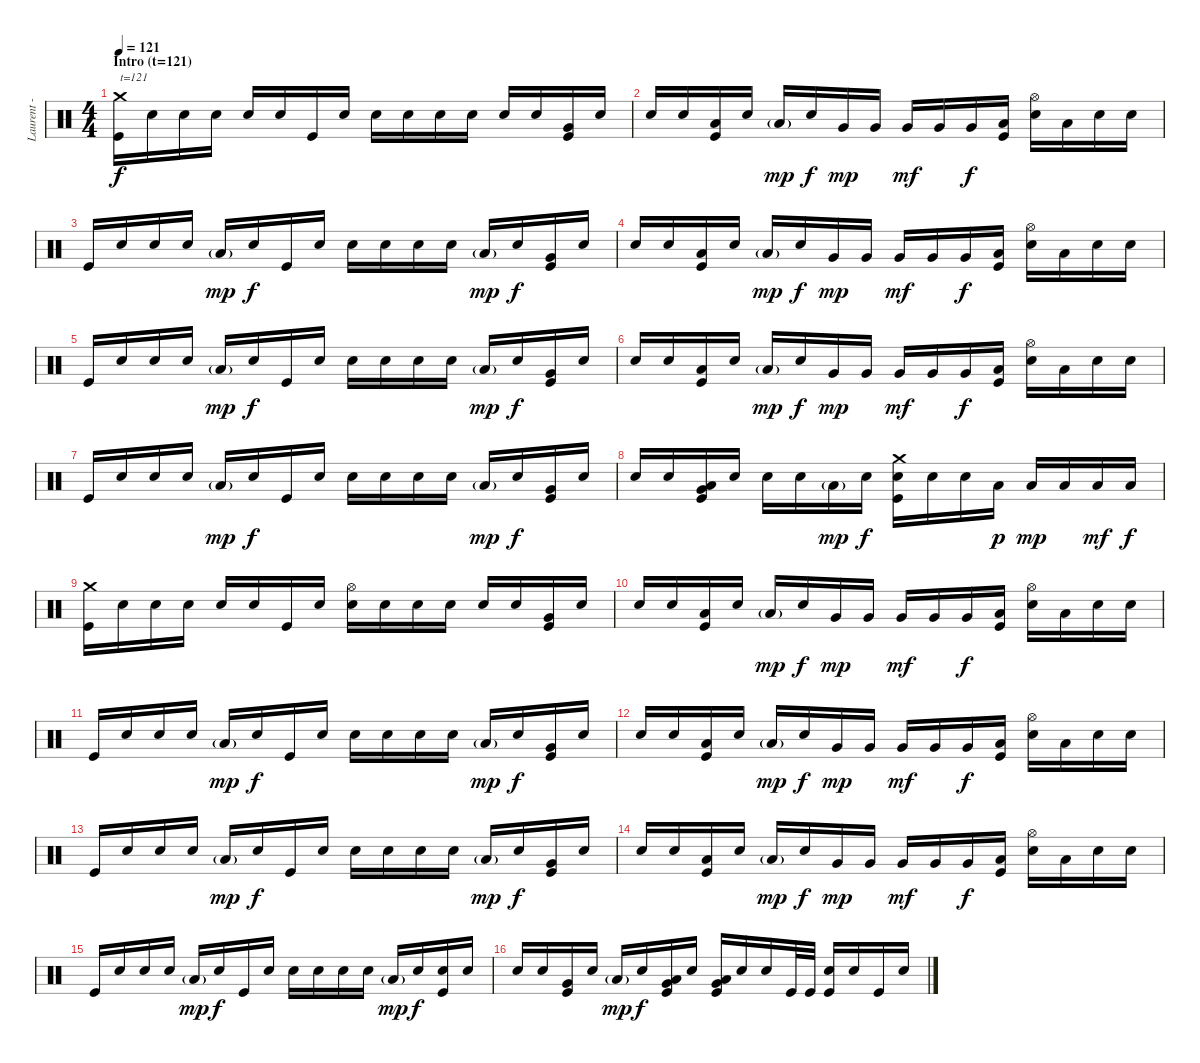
\track ("Laurent - Batterie" "Laurent - ") {instrument percussion}
\staff {score}
\articulation defaults
\ts (4 4)
\section ("" "Intro (t=121)")
\tempo 121
\clef neutral
\ks c
("Crash medium (hit)" "Kick (hit)").16{txt "t=121" dy f volume 16 balance 8} "Snare (hit)".16 "Snare (hit)".16 "Snare (hit)".16 "Snare (hit)".16 "Snare (hit)".16 "Kick (hit)".16 "Snare (hit)".16 "Electric Snare (hit)".16 "Snare (hit)".16 "Snare (hit)".16 "Snare (hit)".16 "Snare (hit)".16 "Snare (hit)".16 ("Very Low Tom (hit)" "Kick (hit)").16 "Snare (hit)".16 |
"Snare (hit)".16 "Snare (hit)".16 ("Low Floor Tom (hit)" "Kick (hit)").16 "Snare (hit)".16 "Low Floor Tom (hit)"{g}.16{dy mp} "Snare (hit)".16{dy f} "Very Low Tom (hit)".16{dy mp} "Very Low Tom (hit)".16 "Very Low Tom (hit)".16{dy mf} "Very Low Tom (hit)".16 "Very Low Tom (hit)".16{dy f} ("Low Floor Tom (hit)" "Kick (hit)").16 ("Hi-Hat (open)" "Electric Snare (hit)").16 "Low Floor Tom (hit)".16 "Snare (hit)".16 "Electric Snare (hit)".16 |
"Kick (hit)".16 "Snare (hit)".16 "Snare (hit)".16 "Snare (hit)".16 "Low Floor Tom (hit)"{g}.16{dy mp} "Snare (hit)".16{dy f} "Kick (hit)".16 "Snare (hit)".16 "Electric Snare (hit)".16 "Snare (hit)".16 "Snare (hit)".16 "Snare (hit)".16 "Low Floor Tom (hit)"{g}.16{dy mp} "Snare (hit)".16{dy f} ("Very Low Tom (hit)" "Kick (hit)").16 "Snare (hit)".16 |
"Snare (hit)".16 "Snare (hit)".16 ("Low Floor Tom (hit)" "Kick (hit)").16 "Snare (hit)".16 "Low Floor Tom (hit)"{g}.16{dy mp} "Snare (hit)".16{dy f} "Very Low Tom (hit)".16{dy mp} "Very Low Tom (hit)".16 "Very Low Tom (hit)".16{dy mf} "Very Low Tom (hit)".16 "Very Low Tom (hit)".16{dy f} ("Low Floor Tom (hit)" "Kick (hit)").16 ("Hi-Hat (open)" "Electric Snare (hit)").16 "Low Floor Tom (hit)".16 "Snare (hit)".16 "Electric Snare (hit)".16 |
"Kick (hit)".16 "Snare (hit)".16 "Snare (hit)".16 "Snare (hit)".16 "Low Floor Tom (hit)"{g}.16{dy mp} "Snare (hit)".16{dy f} "Kick (hit)".16 "Snare (hit)".16 "Electric Snare (hit)".16 "Snare (hit)".16 "Snare (hit)".16 "Snare (hit)".16 "Low Floor Tom (hit)"{g}.16{dy mp} "Snare (hit)".16{dy f} ("Very Low Tom (hit)" "Kick (hit)").16 "Snare (hit)".16 |
"Snare (hit)".16 "Snare (hit)".16 ("Low Floor Tom (hit)" "Kick (hit)").16 "Snare (hit)".16 "Low Floor Tom (hit)"{g}.16{dy mp} "Snare (hit)".16{dy f} "Very Low Tom (hit)".16{dy mp} "Very Low Tom (hit)".16 "Very Low Tom (hit)".16{dy mf} "Very Low Tom (hit)".16 "Very Low Tom (hit)".16{dy f} ("Low Floor Tom (hit)" "Kick (hit)").16 ("Hi-Hat (open)" "Electric Snare (hit)").16 "Low Floor Tom (hit)".16 "Snare (hit)".16 "Electric Snare (hit)".16 |
"Kick (hit)".16 "Snare (hit)".16 "Snare (hit)".16 "Snare (hit)".16 "Low Floor Tom (hit)"{g}.16{dy mp} "Snare (hit)".16{dy f} "Kick (hit)".16 "Snare (hit)".16 "Electric Snare (hit)".16 "Snare (hit)".16 "Snare (hit)".16 "Snare (hit)".16 "Low Floor Tom (hit)"{g}.16{dy mp} "Snare (hit)".16{dy f} ("Very Low Tom (hit)" "Kick (hit)").16 "Snare (hit)".16 |
"Snare (hit)".16 "Snare (hit)".16 ("Very Low Tom (hit)" "Low Floor Tom (hit)" "Kick (hit)").16 "Snare (hit)".16 "Snare (hit)".16 "Snare (hit)".16 "Low Floor Tom (hit)"{g}.16{dy mp} "Snare (hit)".16{dy f} ("Crash medium (hit)" "Electric Snare (hit)" "Kick (hit)").16 "Snare (hit)".16 "Snare (hit)".16 "Low Floor Tom (hit)".16{dy p} "Low Floor Tom (hit)".16{dy mp} "Low Floor Tom (hit)".16 "Low Floor Tom (hit)".16{dy mf} "Low Floor Tom (hit)".16{dy f} |
\section ("" "")
("Crash medium (hit)" "Kick (hit)").16{volume 16 balance 8} "Snare (hit)".16 "Snare (hit)".16 "Snare (hit)".16 "Snare (hit)".16 "Snare (hit)".16 "Kick (hit)".16 "Snare (hit)".16 ("Hi-Hat (open)" "Electric Snare (hit)").16 "Snare (hit)".16 "Snare (hit)".16 "Snare (hit)".16 "Snare (hit)".16 "Snare (hit)".16 ("Very Low Tom (hit)" "Kick (hit)").16 "Snare (hit)".16 |
"Snare (hit)".16 "Snare (hit)".16 ("Low Floor Tom (hit)" "Kick (hit)").16 "Snare (hit)".16 "Low Floor Tom (hit)"{g}.16{dy mp} "Snare (hit)".16{dy f} "Very Low Tom (hit)".16{dy mp} "Very Low Tom (hit)".16 "Very Low Tom (hit)".16{dy mf} "Very Low Tom (hit)".16 "Very Low Tom (hit)".16{dy f} ("Low Floor Tom (hit)" "Kick (hit)").16 ("Hi-Hat (open)" "Electric Snare (hit)").16 "Low Floor Tom (hit)".16 "Snare (hit)".16 "Electric Snare (hit)".16 |
"Kick (hit)".16 "Snare (hit)".16 "Snare (hit)".16 "Snare (hit)".16 "Low Floor Tom (hit)"{g}.16{dy mp} "Snare (hit)".16{dy f} "Kick (hit)".16 "Snare (hit)".16 "Electric Snare (hit)".16 "Snare (hit)".16 "Snare (hit)".16 "Snare (hit)".16 "Low Floor Tom (hit)"{g}.16{dy mp} "Snare (hit)".16{dy f} ("Very Low Tom (hit)" "Kick (hit)").16 "Snare (hit)".16 |
"Snare (hit)".16 "Snare (hit)".16 ("Low Floor Tom (hit)" "Kick (hit)").16 "Snare (hit)".16 "Low Floor Tom (hit)"{g}.16{dy mp} "Snare (hit)".16{dy f} "Very Low Tom (hit)".16{dy mp} "Very Low Tom (hit)".16 "Very Low Tom (hit)".16{dy mf} "Very Low Tom (hit)".16 "Very Low Tom (hit)".16{dy f} ("Low Floor Tom (hit)" "Kick (hit)").16 ("Hi-Hat (open)" "Electric Snare (hit)").16 "Low Floor Tom (hit)".16 "Snare (hit)".16 "Electric Snare (hit)".16 |
"Kick (hit)".16 "Snare (hit)".16 "Snare (hit)".16 "Snare (hit)".16 "Low Floor Tom (hit)"{g}.16{dy mp} "Snare (hit)".16{dy f} "Kick (hit)".16 "Snare (hit)".16 "Electric Snare (hit)".16 "Snare (hit)".16 "Snare (hit)".16 "Snare (hit)".16 "Low Floor Tom (hit)"{g}.16{dy mp} "Snare (hit)".16{dy f} ("Very Low Tom (hit)" "Kick (hit)").16 "Snare (hit)".16 |
"Snare (hit)".16 "Snare (hit)".16 ("Low Floor Tom (hit)" "Kick (hit)").16 "Snare (hit)".16 "Low Floor Tom (hit)"{g}.16{dy mp} "Snare (hit)".16{dy f} "Very Low Tom (hit)".16{dy mp} "Very Low Tom (hit)".16 "Very Low Tom (hit)".16{dy mf} "Very Low Tom (hit)".16 "Very Low Tom (hit)".16{dy f} ("Low Floor Tom (hit)" "Kick (hit)").16 ("Hi-Hat (open)" "Electric Snare (hit)").16 "Low Floor Tom (hit)".16 "Snare (hit)".16 "Electric Snare (hit)".16 |
"Kick (hit)".16 "Snare (hit)".16 "Snare (hit)".16 "Snare (hit)".16 "Low Floor Tom (hit)"{g}.16{dy mp} "Snare (hit)".16{dy f} "Kick (hit)".16 "Snare (hit)".16 "Electric Snare (hit)".16 "Snare (hit)".16 "Snare (hit)".16 "Snare (hit)".16 "Low Floor Tom (hit)"{g}.16{dy mp} "Snare (hit)".16{dy f} ("Electric Snare (hit)" "Kick (hit)").16 "Snare (hit)".16 |
"Snare (hit)".16 "Snare (hit)".16 ("Very Low Tom (hit)" "Kick (hit)").16 "Snare (hit)".16 "Low Floor Tom (hit)"{g}.16{dy mp} "Snare (hit)".16{dy f} ("Very Low Tom (hit)" "Low Floor Tom (hit)" "Kick (hit)").16 "Snare (hit)".16 ("Very Low Tom (hit)" "Low Floor Tom (hit)" "Kick (hit)").16 "Snare (hit)".16 "Snare (hit)".16 "Kick (hit)".32 "Kick (hit)".32 ("Electric Snare (hit)" "Kick (hit)").16 "Snare (hit)".16 "Kick (hit)".16 "Snare (hit)".16
